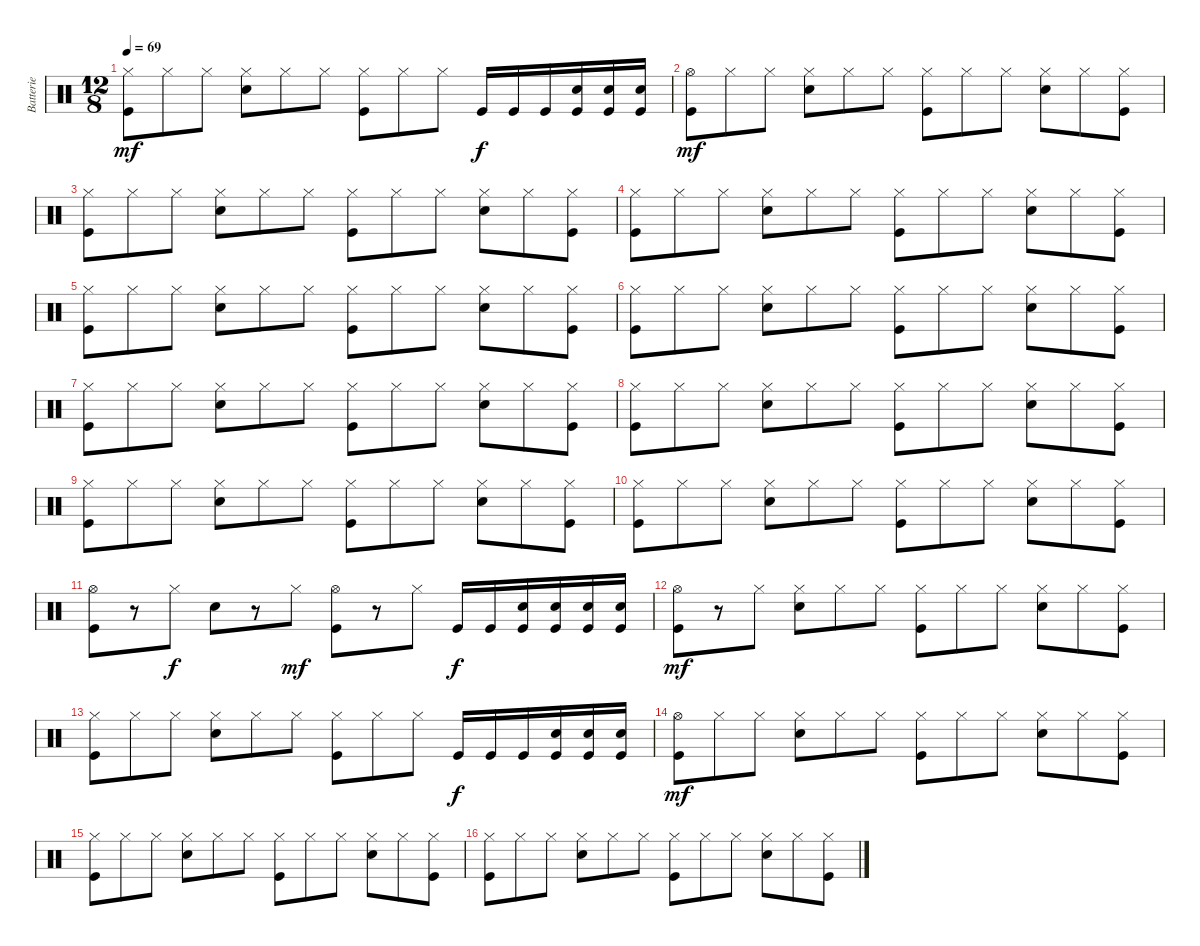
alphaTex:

\track ("Batterie" "Batterie") {instrument percussion}
\staff {score}
\articulation defaults
\ts (12 8)
\tempo 69
\clef neutral
\ks c
("Hi-Hat (closed)" "Kick (hit)").8{dy mf} "Hi-Hat (closed)".8 "Hi-Hat (closed)".8 ("Hi-Hat (closed)" "Snare (hit) 2").8 "Hi-Hat (closed)".8 "Hi-Hat (closed)".8 ("Hi-Hat (closed)" "Kick (hit)").8 "Hi-Hat (closed)".8 "Hi-Hat (closed)".8 "Kick (hit)".16{dy f} "Kick (hit)".16 "Kick (hit)".16 ("Snare (hit) 2" "Kick (hit)").16 ("Snare (hit) 2" "Kick (hit)").16 ("Snare (hit) 2" "Kick (hit)").16 |
("Hi-Hat (open)" "Kick (hit)").8{dy mf} "Hi-Hat (closed)".8 "Hi-Hat (closed)".8 ("Hi-Hat (closed)" "Snare (hit) 2").8 "Hi-Hat (closed)".8 "Hi-Hat (closed)".8 ("Hi-Hat (closed)" "Kick (hit)").8 "Hi-Hat (closed)".8 "Hi-Hat (closed)".8 ("Hi-Hat (closed)" "Snare (hit) 2").8 "Hi-Hat (closed)".8 ("Hi-Hat (closed)" "Kick (hit)").8 |
("Hi-Hat (closed)" "Kick (hit)").8 "Hi-Hat (closed)".8 "Hi-Hat (closed)".8 ("Hi-Hat (closed)" "Snare (hit) 2").8 "Hi-Hat (closed)".8 "Hi-Hat (closed)".8 ("Hi-Hat (closed)" "Kick (hit)").8 "Hi-Hat (closed)".8 "Hi-Hat (closed)".8 ("Hi-Hat (closed)" "Snare (hit) 2").8 "Hi-Hat (closed)".8 ("Hi-Hat (closed)" "Kick (hit)").8 |
("Hi-Hat (closed)" "Kick (hit)").8 "Hi-Hat (closed)".8 "Hi-Hat (closed)".8 ("Hi-Hat (closed)" "Snare (hit) 2").8 "Hi-Hat (closed)".8 "Hi-Hat (closed)".8 ("Hi-Hat (closed)" "Kick (hit)").8 "Hi-Hat (closed)".8 "Hi-Hat (closed)".8 ("Hi-Hat (closed)" "Snare (hit) 2").8 "Hi-Hat (closed)".8 ("Hi-Hat (closed)" "Kick (hit)").8 |
("Hi-Hat (closed)" "Kick (hit)").8 "Hi-Hat (closed)".8 "Hi-Hat (closed)".8 ("Hi-Hat (closed)" "Snare (hit) 2").8 "Hi-Hat (closed)".8 "Hi-Hat (closed)".8 ("Hi-Hat (closed)" "Kick (hit)").8 "Hi-Hat (closed)".8 "Hi-Hat (closed)".8 ("Hi-Hat (closed)" "Snare (hit) 2").8 "Hi-Hat (closed)".8 ("Hi-Hat (closed)" "Kick (hit)").8 |
("Hi-Hat (closed)" "Kick (hit)").8 "Hi-Hat (closed)".8 "Hi-Hat (closed)".8 ("Hi-Hat (closed)" "Snare (hit) 2").8 "Hi-Hat (closed)".8 "Hi-Hat (closed)".8 ("Hi-Hat (closed)" "Kick (hit)").8 "Hi-Hat (closed)".8 "Hi-Hat (closed)".8 ("Hi-Hat (closed)" "Snare (hit) 2").8 "Hi-Hat (closed)".8 ("Hi-Hat (closed)" "Kick (hit)").8 |
("Hi-Hat (closed)" "Kick (hit)").8 "Hi-Hat (closed)".8 "Hi-Hat (closed)".8 ("Hi-Hat (closed)" "Snare (hit) 2").8 "Hi-Hat (closed)".8 "Hi-Hat (closed)".8 ("Hi-Hat (closed)" "Kick (hit)").8 "Hi-Hat (closed)".8 "Hi-Hat (closed)".8 ("Hi-Hat (closed)" "Snare (hit) 2").8 "Hi-Hat (closed)".8 ("Hi-Hat (closed)" "Kick (hit)").8 |
("Hi-Hat (closed)" "Kick (hit)").8 "Hi-Hat (closed)".8 "Hi-Hat (closed)".8 ("Hi-Hat (closed)" "Snare (hit) 2").8 "Hi-Hat (closed)".8 "Hi-Hat (closed)".8 ("Hi-Hat (closed)" "Kick (hit)").8 "Hi-Hat (closed)".8 "Hi-Hat (closed)".8 ("Hi-Hat (closed)" "Snare (hit) 2").8 "Hi-Hat (closed)".8 ("Hi-Hat (closed)" "Kick (hit)").8 |
("Hi-Hat (closed)" "Kick (hit)").8 "Hi-Hat (closed)".8 "Hi-Hat (closed)".8 ("Hi-Hat (closed)" "Snare (hit) 2").8 "Hi-Hat (closed)".8 "Hi-Hat (closed)".8 ("Hi-Hat (closed)" "Kick (hit)").8 "Hi-Hat (closed)".8 "Hi-Hat (closed)".8 ("Hi-Hat (closed)" "Snare (hit) 2").8 "Hi-Hat (closed)".8 ("Hi-Hat (closed)" "Kick (hit)").8 |
("Hi-Hat (closed)" "Kick (hit)").8 "Hi-Hat (closed)".8 "Hi-Hat (closed)".8 ("Hi-Hat (closed)" "Snare (hit) 2").8 "Hi-Hat (closed)".8 "Hi-Hat (closed)".8 ("Hi-Hat (closed)" "Kick (hit)").8 "Hi-Hat (closed)".8 "Hi-Hat (closed)".8 ("Hi-Hat (closed)" "Snare (hit) 2").8 "Hi-Hat (closed)".8 ("Hi-Hat (closed)" "Kick (hit)").8 |
("Hi-Hat (open)" "Kick (hit)").8 r.8 "Hi-Hat (closed)".8{dy f} "Snare (hit) 2".8 r.8 "Hi-Hat (closed)".8{dy mf} ("Hi-Hat (open)" "Kick (hit)").8 r.8 "Hi-Hat (closed)".8 "Kick (hit)".16{dy f} "Kick (hit)".16 ("Snare (hit) 2" "Kick (hit)").16 ("Snare (hit) 2" "Kick (hit)").16 ("Snare (hit) 2" "Kick (hit)").16 ("Snare (hit) 2" "Kick (hit)").16 |
("Hi-Hat (open)" "Kick (hit)").8{dy mf} r.8 "Hi-Hat (closed)".8 ("Hi-Hat (closed)" "Snare (hit) 2").8 "Hi-Hat (closed)".8 "Hi-Hat (closed)".8 ("Hi-Hat (closed)" "Kick (hit)").8 "Hi-Hat (closed)".8 "Hi-Hat (closed)".8 ("Hi-Hat (closed)" "Snare (hit) 2").8 "Hi-Hat (closed)".8 ("Hi-Hat (closed)" "Kick (hit)").8 |
("Hi-Hat (closed)" "Kick (hit)").8 "Hi-Hat (closed)".8 "Hi-Hat (closed)".8 ("Hi-Hat (closed)" "Snare (hit) 2").8 "Hi-Hat (closed)".8 "Hi-Hat (closed)".8 ("Hi-Hat (closed)" "Kick (hit)").8 "Hi-Hat (closed)".8 "Hi-Hat (closed)".8 "Kick (hit)".16{dy f} "Kick (hit)".16 "Kick (hit)".16 ("Snare (hit) 2" "Kick (hit)").16 ("Snare (hit) 2" "Kick (hit)").16 ("Snare (hit) 2" "Kick (hit)").16 |
("Hi-Hat (open)" "Kick (hit)").8{dy mf} "Hi-Hat (closed)".8 "Hi-Hat (closed)".8 ("Hi-Hat (closed)" "Snare (hit) 2").8 "Hi-Hat (closed)".8 "Hi-Hat (closed)".8 ("Hi-Hat (closed)" "Kick (hit)").8 "Hi-Hat (closed)".8 "Hi-Hat (closed)".8 ("Hi-Hat (closed)" "Snare (hit) 2").8 "Hi-Hat (closed)".8 ("Hi-Hat (closed)" "Kick (hit)").8 |
("Hi-Hat (closed)" "Kick (hit)").8 "Hi-Hat (closed)".8 "Hi-Hat (closed)".8 ("Hi-Hat (closed)" "Snare (hit) 2").8 "Hi-Hat (closed)".8 "Hi-Hat (closed)".8 ("Hi-Hat (closed)" "Kick (hit)").8 "Hi-Hat (closed)".8 "Hi-Hat (closed)".8 ("Hi-Hat (closed)" "Snare (hit) 2").8 "Hi-Hat (closed)".8 ("Hi-Hat (closed)" "Kick (hit)").8 |
("Hi-Hat (closed)" "Kick (hit)").8 "Hi-Hat (closed)".8 "Hi-Hat (closed)".8 ("Hi-Hat (closed)" "Snare (hit) 2").8 "Hi-Hat (closed)".8 "Hi-Hat (closed)".8 ("Hi-Hat (closed)" "Kick (hit)").8 "Hi-Hat (closed)".8 "Hi-Hat (closed)".8 ("Hi-Hat (closed)" "Snare (hit) 2").8 "Hi-Hat (closed)".8 ("Hi-Hat (closed)" "Kick (hit)").8
